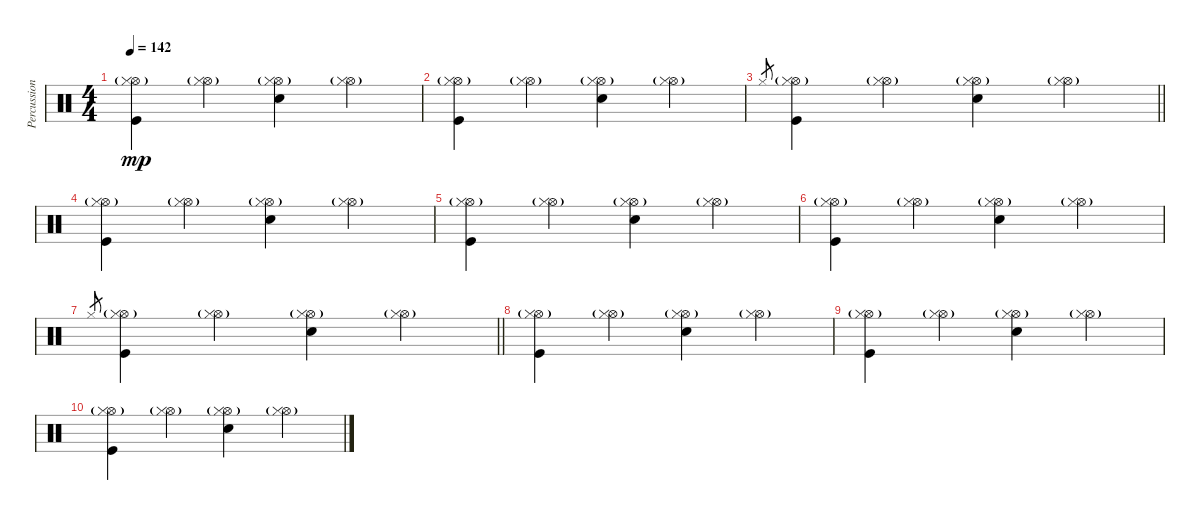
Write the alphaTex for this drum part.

\track ("Percussioni" "Percussion") {instrument percussion}
\staff {score}
\articulation defaults
\ts (4 4)
\tempo 142
\clef neutral
\ks c
("Hi-Hat (open)"{g} "Hi-Hat (closed)"{g} "Kick (hit)").4{dy mp} ("Hi-Hat (open)"{g} "Hi-Hat (closed)").4 ("Hi-Hat (open)"{g} "Hi-Hat (closed)"{g} "Electric Snare (hit)").4 ("Hi-Hat (open)"{g} "Hi-Hat (closed)").4 |
("Hi-Hat (open)"{g} "Hi-Hat (closed)"{g} "Kick (hit)").4 ("Hi-Hat (open)"{g} "Hi-Hat (closed)").4 ("Hi-Hat (open)"{g} "Hi-Hat (closed)"{g} "Electric Snare (hit)").4 ("Hi-Hat (open)"{g} "Hi-Hat (closed)").4 |
\barLineRight lightlight "Hi-Hat (closed)".8{gr}
("Hi-Hat (open)"{g} "Hi-Hat (closed)"{g} "Kick (hit)").4 ("Hi-Hat (open)"{g} "Hi-Hat (closed)").4 ("Hi-Hat (open)"{g} "Hi-Hat (closed)"{g} "Electric Snare (hit)").4 ("Hi-Hat (open)"{g} "Hi-Hat (closed)").4 |
("Hi-Hat (open)"{g} "Hi-Hat (closed)"{g} "Kick (hit)").4 ("Hi-Hat (open)"{g} "Hi-Hat (closed)").4 ("Hi-Hat (open)"{g} "Hi-Hat (closed)"{g} "Electric Snare (hit)").4 ("Hi-Hat (open)"{g} "Hi-Hat (closed)").4 |
("Hi-Hat (open)"{g} "Hi-Hat (closed)"{g} "Kick (hit)").4 ("Hi-Hat (open)"{g} "Hi-Hat (closed)").4 ("Hi-Hat (open)"{g} "Hi-Hat (closed)"{g} "Electric Snare (hit)").4 ("Hi-Hat (open)"{g} "Hi-Hat (closed)").4 |
("Hi-Hat (open)"{g} "Hi-Hat (closed)"{g} "Kick (hit)").4 ("Hi-Hat (open)"{g} "Hi-Hat (closed)").4 ("Hi-Hat (open)"{g} "Hi-Hat (closed)"{g} "Electric Snare (hit)").4 ("Hi-Hat (open)"{g} "Hi-Hat (closed)").4 |
\barLineRight lightlight "Hi-Hat (closed)".8{gr}
("Hi-Hat (open)"{g} "Hi-Hat (closed)"{g} "Kick (hit)").4 ("Hi-Hat (open)"{g} "Hi-Hat (closed)").4 ("Hi-Hat (open)"{g} "Hi-Hat (closed)"{g} "Electric Snare (hit)").4 ("Hi-Hat (open)"{g} "Hi-Hat (closed)").4 |
("Hi-Hat (open)"{g} "Hi-Hat (closed)"{g} "Kick (hit)").4 ("Hi-Hat (open)"{g} "Hi-Hat (closed)").4 ("Hi-Hat (open)"{g} "Hi-Hat (closed)"{g} "Electric Snare (hit)").4 ("Hi-Hat (open)"{g} "Hi-Hat (closed)").4 |
("Hi-Hat (open)"{g} "Hi-Hat (closed)"{g} "Kick (hit)").4 ("Hi-Hat (open)"{g} "Hi-Hat (closed)").4 ("Hi-Hat (open)"{g} "Hi-Hat (closed)"{g} "Electric Snare (hit)").4 ("Hi-Hat (open)"{g} "Hi-Hat (closed)").4 |
("Hi-Hat (open)"{g} "Hi-Hat (closed)"{g} "Kick (hit)").4 ("Hi-Hat (open)"{g} "Hi-Hat (closed)").4 ("Hi-Hat (open)"{g} "Hi-Hat (closed)"{g} "Electric Snare (hit)").4 ("Hi-Hat (open)"{g} "Hi-Hat (closed)").4
